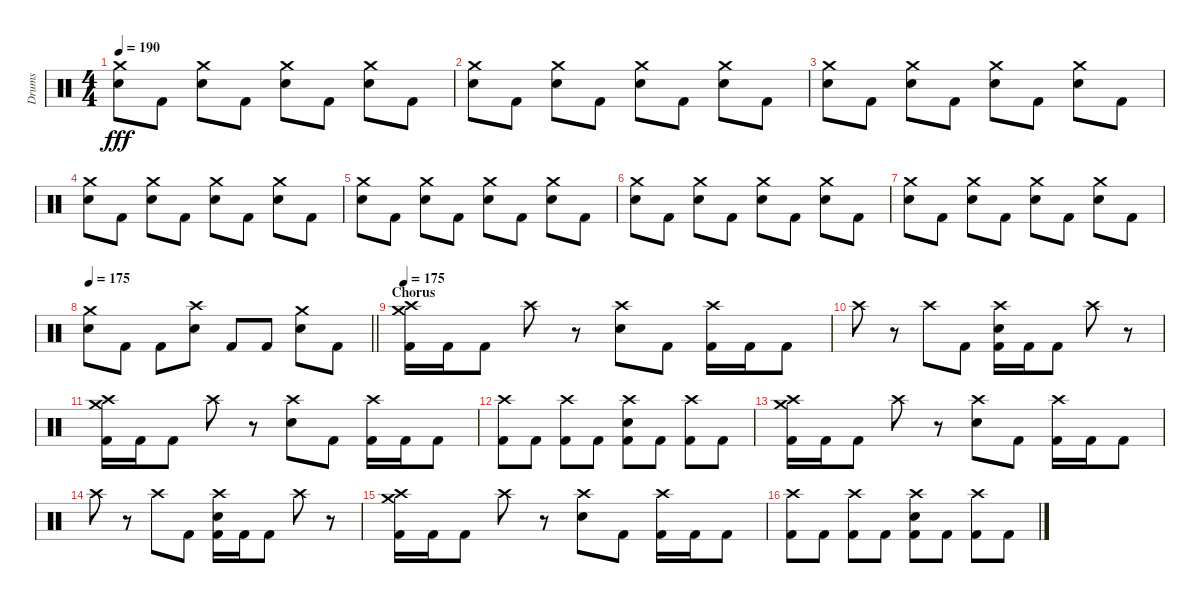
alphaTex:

\track ("Drums" "Drums") {instrument percussion}
\staff {score}
\articulation defaults
\ts (4 4)
\tempo 190
\clef neutral
\ks c
("Crash medium (hit)" "Electric Snare (hit)").8{dy fff} "Kick (hit) 2".8 ("Crash medium (hit)" "Electric Snare (hit)").8 "Kick (hit) 2".8 ("Crash medium (hit)" "Electric Snare (hit)").8 "Kick (hit) 2".8 ("Crash medium (hit)" "Electric Snare (hit)").8 "Kick (hit) 2".8 |
("Crash medium (hit)" "Electric Snare (hit)").8 "Kick (hit) 2".8 ("Crash medium (hit)" "Electric Snare (hit)").8 "Kick (hit) 2".8 ("Crash medium (hit)" "Electric Snare (hit)").8 "Kick (hit) 2".8 ("Crash medium (hit)" "Electric Snare (hit)").8 "Kick (hit) 2".8 |
("Crash medium (hit)" "Electric Snare (hit)").8 "Kick (hit) 2".8 ("Crash medium (hit)" "Electric Snare (hit)").8 "Kick (hit) 2".8 ("Crash medium (hit)" "Electric Snare (hit)").8 "Kick (hit) 2".8 ("Crash medium (hit)" "Electric Snare (hit)").8 "Kick (hit) 2".8 |
("Crash medium (hit)" "Electric Snare (hit)").8 "Kick (hit) 2".8 ("Crash medium (hit)" "Electric Snare (hit)").8 "Kick (hit) 2".8 ("Crash medium (hit)" "Electric Snare (hit)").8 "Kick (hit) 2".8 ("Crash medium (hit)" "Electric Snare (hit)").8 "Kick (hit) 2".8 |
("Crash medium (hit)" "Electric Snare (hit)").8 "Kick (hit) 2".8 ("Crash medium (hit)" "Electric Snare (hit)").8 "Kick (hit) 2".8 ("Crash medium (hit)" "Electric Snare (hit)").8 "Kick (hit) 2".8 ("Crash medium (hit)" "Electric Snare (hit)").8 "Kick (hit) 2".8 |
("Crash medium (hit)" "Electric Snare (hit)").8 "Kick (hit) 2".8 ("Crash medium (hit)" "Electric Snare (hit)").8 "Kick (hit) 2".8 ("Crash medium (hit)" "Electric Snare (hit)").8 "Kick (hit) 2".8 ("Crash medium (hit)" "Electric Snare (hit)").8 "Kick (hit) 2".8 |
("Crash medium (hit)" "Electric Snare (hit)").8 "Kick (hit) 2".8 ("Crash medium (hit)" "Electric Snare (hit)").8 "Kick (hit) 2".8 ("Crash medium (hit)" "Electric Snare (hit)").8 "Kick (hit) 2".8 ("Crash medium (hit)" "Electric Snare (hit)").8 "Kick (hit) 2".8 |
\tempo 175
\barLineRight lightlight
("Crash medium (hit)" "Electric Snare (hit)").8 "Kick (hit) 2".8 "Kick (hit) 2".8 ("Crash high (hit)" "Electric Snare (hit)").8 "Kick (hit) 2".8 "Kick (hit) 2".8 ("Crash medium (hit)" "Electric Snare (hit)").8 "Kick (hit) 2".8 |
\section ("" "Chorus")
\tempo 175
("Crash high (hit)" "Crash medium (hit)" "Kick (hit) 2").16 "Kick (hit) 2".16 "Kick (hit) 2".8 "Crash high (hit)".8 r.8 ("Crash high (hit)" "Electric Snare (hit)").8 "Kick (hit) 2".8 ("Crash high (hit)" "Kick (hit) 2").16 "Kick (hit) 2".16 "Kick (hit) 2".8 |
"Crash high (hit)".8 r.8 "Crash high (hit)".8 "Kick (hit) 2".8 ("Crash high (hit)" "Electric Snare (hit)" "Kick (hit) 2").16 "Kick (hit) 2".16 "Kick (hit) 2".8 "Crash high (hit)".8 r.8 |
("Crash high (hit)" "Crash medium (hit)" "Kick (hit) 2").16 "Kick (hit) 2".16 "Kick (hit) 2".8 "Crash high (hit)".8 r.8 ("Crash high (hit)" "Electric Snare (hit)").8 "Kick (hit) 2".8 ("Crash high (hit)" "Kick (hit) 2").16 "Kick (hit) 2".16 "Kick (hit) 2".8 |
("Crash high (hit)" "Kick (hit) 2").8 "Kick (hit) 2".8 ("Crash high (hit)" "Kick (hit) 2").8 "Kick (hit) 2".8 ("Crash high (hit)" "Electric Snare (hit)" "Kick (hit) 2").8 "Kick (hit) 2".8 ("Crash high (hit)" "Kick (hit) 2").8 "Kick (hit) 2".8 |
("Crash high (hit)" "Crash medium (hit)" "Kick (hit) 2").16 "Kick (hit) 2".16 "Kick (hit) 2".8 "Crash high (hit)".8 r.8 ("Crash high (hit)" "Electric Snare (hit)").8 "Kick (hit) 2".8 ("Crash high (hit)" "Kick (hit) 2").16 "Kick (hit) 2".16 "Kick (hit) 2".8 |
"Crash high (hit)".8 r.8 "Crash high (hit)".8 "Kick (hit) 2".8 ("Crash high (hit)" "Electric Snare (hit)" "Kick (hit) 2").16 "Kick (hit) 2".16 "Kick (hit) 2".8 "Crash high (hit)".8 r.8 |
("Crash high (hit)" "Crash medium (hit)" "Kick (hit) 2").16 "Kick (hit) 2".16 "Kick (hit) 2".8 "Crash high (hit)".8 r.8 ("Crash high (hit)" "Electric Snare (hit)").8 "Kick (hit) 2".8 ("Crash high (hit)" "Kick (hit) 2").16 "Kick (hit) 2".16 "Kick (hit) 2".8 |
("Crash high (hit)" "Kick (hit) 2").8 "Kick (hit) 2".8 ("Crash high (hit)" "Kick (hit) 2").8 "Kick (hit) 2".8 ("Crash high (hit)" "Electric Snare (hit)" "Kick (hit) 2").8 "Kick (hit) 2".8 ("Crash high (hit)" "Kick (hit) 2").8 "Kick (hit) 2".8
